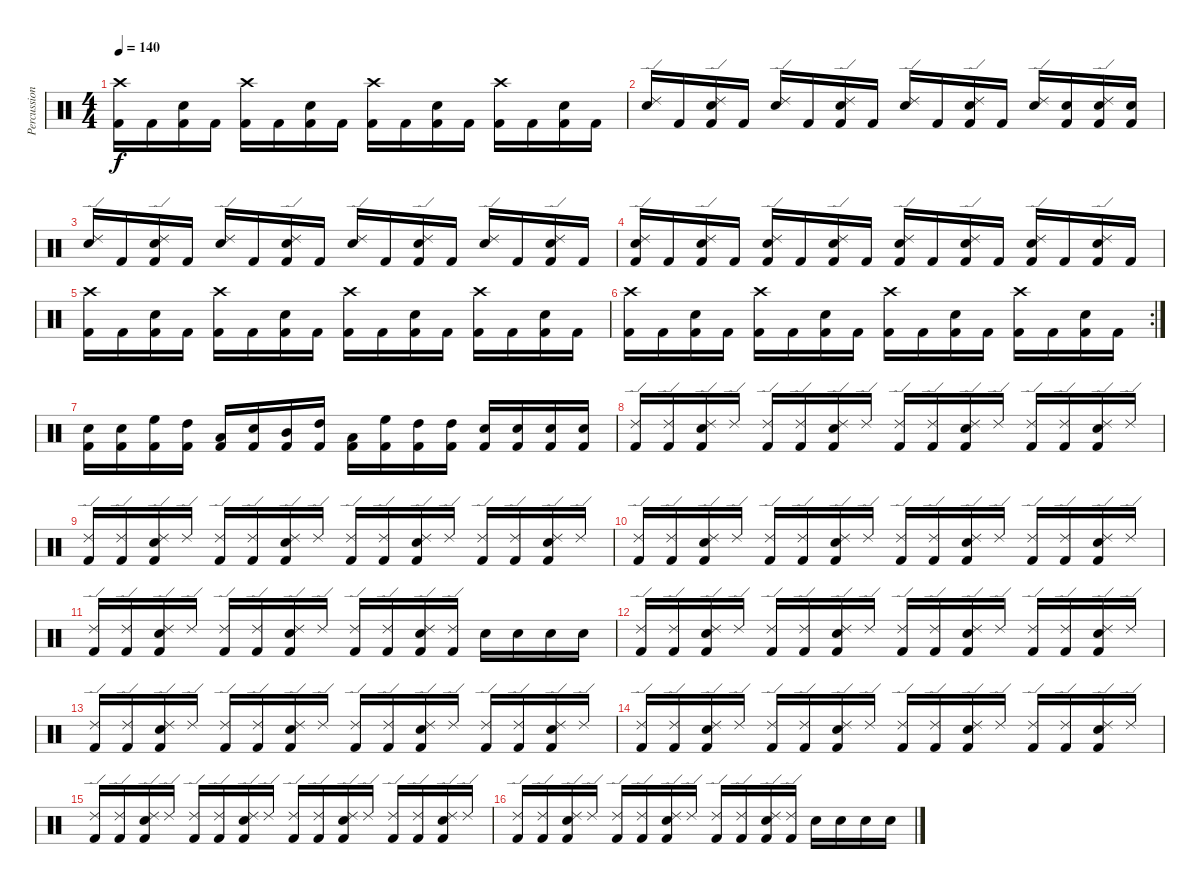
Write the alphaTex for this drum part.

\track ("Percussion" "Percussion") {instrument percussion}
\staff {score}
\articulation defaults
\ts (4 4)
\tempo 140
\clef neutral
\ks c
("Kick (hit) 2" "Crash high (hit)").16{dy f} "Kick (hit) 2".16 ("Kick (hit) 2" "Electric Snare (hit)").16 "Kick (hit) 2".16 ("Kick (hit) 2" "Crash high (hit)").16 "Kick (hit) 2".16 ("Kick (hit) 2" "Electric Snare (hit)").16 "Kick (hit) 2".16 ("Kick (hit) 2" "Crash high (hit)").16 "Kick (hit) 2".16 ("Kick (hit) 2" "Electric Snare (hit)").16 "Kick (hit) 2".16 ("Kick (hit) 2" "Crash high (hit)").16 "Kick (hit) 2".16 ("Kick (hit) 2" "Electric Snare (hit)").16 "Kick (hit) 2".16 |
("Electric Snare (hit)" "Ride (edge) 2").16 "Kick (hit) 2".16 ("Kick (hit) 2" "Electric Snare (hit)" "Ride (edge) 2").16 "Kick (hit) 2".16 ("Electric Snare (hit)" "Ride (edge) 2").16 "Kick (hit) 2".16 ("Kick (hit) 2" "Electric Snare (hit)" "Ride (edge) 2").16 "Kick (hit) 2".16 ("Electric Snare (hit)" "Ride (edge) 2").16 "Kick (hit) 2".16 ("Kick (hit) 2" "Electric Snare (hit)" "Ride (edge) 2").16 "Kick (hit) 2".16 ("Electric Snare (hit)" "Ride (edge) 2").16 ("Kick (hit) 2" "Electric Snare (hit)").16 ("Kick (hit) 2" "Electric Snare (hit)" "Ride (edge) 2").16 ("Kick (hit) 2" "Electric Snare (hit)").16 |
("Electric Snare (hit)" "Ride (edge) 2").16 "Kick (hit) 2".16 ("Kick (hit) 2" "Electric Snare (hit)" "Ride (edge) 2").16 "Kick (hit) 2".16 ("Electric Snare (hit)" "Ride (edge) 2").16 "Kick (hit) 2".16 ("Kick (hit) 2" "Electric Snare (hit)" "Ride (edge) 2").16 "Kick (hit) 2".16 ("Electric Snare (hit)" "Ride (edge) 2").16 "Kick (hit) 2".16 ("Kick (hit) 2" "Electric Snare (hit)" "Ride (edge) 2").16 "Kick (hit) 2".16 ("Electric Snare (hit)" "Ride (edge) 2").16 "Kick (hit) 2".16 ("Kick (hit) 2" "Electric Snare (hit)" "Ride (edge) 2").16 "Kick (hit) 2".16 |
("Kick (hit) 2" "Electric Snare (hit)" "Ride (edge) 2").16 "Kick (hit) 2".16 ("Kick (hit) 2" "Electric Snare (hit)" "Ride (edge) 2").16 "Kick (hit) 2".16 ("Kick (hit) 2" "Electric Snare (hit)" "Ride (edge) 2").16 "Kick (hit) 2".16 ("Kick (hit) 2" "Electric Snare (hit)" "Ride (edge) 2").16 "Kick (hit) 2".16 ("Kick (hit) 2" "Electric Snare (hit)" "Ride (edge) 2").16 "Kick (hit) 2".16 ("Kick (hit) 2" "Electric Snare (hit)" "Ride (edge) 2").16 "Kick (hit) 2".16 ("Kick (hit) 2" "Electric Snare (hit)" "Ride (edge) 2").16 "Kick (hit) 2".16 ("Kick (hit) 2" "Electric Snare (hit)" "Ride (edge) 2").16 "Kick (hit) 2".16 |
("Kick (hit) 2" "Crash high (hit)").16 "Kick (hit) 2".16 ("Kick (hit) 2" "Electric Snare (hit)").16 "Kick (hit) 2".16 ("Kick (hit) 2" "Crash high (hit)").16 "Kick (hit) 2".16 ("Kick (hit) 2" "Electric Snare (hit)").16 "Kick (hit) 2".16 ("Kick (hit) 2" "Crash high (hit)").16 "Kick (hit) 2".16 ("Kick (hit) 2" "Electric Snare (hit)").16 "Kick (hit) 2".16 ("Kick (hit) 2" "Crash high (hit)").16 "Kick (hit) 2".16 ("Kick (hit) 2" "Electric Snare (hit)").16 "Kick (hit) 2".16 |
\rc 2
("Kick (hit) 2" "Crash high (hit)").16 "Kick (hit) 2".16 ("Kick (hit) 2" "Electric Snare (hit)").16 "Kick (hit) 2".16 ("Kick (hit) 2" "Crash high (hit)").16 "Kick (hit) 2".16 ("Kick (hit) 2" "Electric Snare (hit)").16 "Kick (hit) 2".16 ("Kick (hit) 2" "Crash high (hit)").16 "Kick (hit) 2".16 ("Kick (hit) 2" "Electric Snare (hit)").16 "Kick (hit) 2".16 ("Kick (hit) 2" "Crash high (hit)").16 "Kick (hit) 2".16 ("Kick (hit) 2" "Electric Snare (hit)").16 "Kick (hit) 2".16 |
("Kick (hit) 2" "Electric Snare (hit)").16 ("Kick (hit) 2" "Electric Snare (hit)").16 ("Kick (hit) 2" "High Floor Tom (hit)").16 ("Kick (hit) 2" "High Tom (hit)").16 ("Kick (hit) 2" "Low Tom (hit)").16 ("Kick (hit) 2" "Electric Snare (hit)").16 ("Kick (hit) 2" "Mid Tom (hit)").16 ("Kick (hit) 2" "High Tom (hit)").16 ("Kick (hit) 2" "Low Tom (hit)").16 ("Kick (hit) 2" "High Floor Tom (hit)").16 ("Kick (hit) 2" "High Tom (hit)").16 ("Kick (hit) 2" "High Tom (hit)").16 ("Kick (hit) 2" "Electric Snare (hit)").16 ("Kick (hit) 2" "Electric Snare (hit)").16 ("Kick (hit) 2" "Electric Snare (hit)").16 ("Kick (hit) 2" "Electric Snare (hit)").16 |
("Kick (hit) 2" "Ride (edge) 2").16 ("Kick (hit) 2" "Ride (edge) 2").16 ("Kick (hit) 2" "Electric Snare (hit)" "Ride (edge) 2").16 "Ride (edge) 2".16 ("Kick (hit) 2" "Ride (edge) 2").16 ("Kick (hit) 2" "Ride (edge) 2").16 ("Kick (hit) 2" "Electric Snare (hit)" "Ride (edge) 2").16 "Ride (edge) 2".16 ("Kick (hit) 2" "Ride (edge) 2").16 ("Kick (hit) 2" "Ride (edge) 2").16 ("Kick (hit) 2" "Electric Snare (hit)" "Ride (edge) 2").16 "Ride (edge) 2".16 ("Kick (hit) 2" "Ride (edge) 2").16 ("Kick (hit) 2" "Ride (edge) 2").16 ("Kick (hit) 2" "Electric Snare (hit)" "Ride (edge) 2").16 "Ride (edge) 2".16 |
("Kick (hit) 2" "Ride (edge) 2").16 ("Kick (hit) 2" "Ride (edge) 2").16 ("Kick (hit) 2" "Electric Snare (hit)" "Ride (edge) 2").16 "Ride (edge) 2".16 ("Kick (hit) 2" "Ride (edge) 2").16 ("Kick (hit) 2" "Ride (edge) 2").16 ("Kick (hit) 2" "Electric Snare (hit)" "Ride (edge) 2").16 "Ride (edge) 2".16 ("Kick (hit) 2" "Ride (edge) 2").16 ("Kick (hit) 2" "Ride (edge) 2").16 ("Kick (hit) 2" "Electric Snare (hit)" "Ride (edge) 2").16 "Ride (edge) 2".16 ("Kick (hit) 2" "Ride (edge) 2").16 ("Kick (hit) 2" "Ride (edge) 2").16 ("Kick (hit) 2" "Electric Snare (hit)" "Ride (edge) 2").16 "Ride (edge) 2".16 |
("Kick (hit) 2" "Ride (edge) 2").16 ("Kick (hit) 2" "Ride (edge) 2").16 ("Kick (hit) 2" "Electric Snare (hit)" "Ride (edge) 2").16 "Ride (edge) 2".16 ("Kick (hit) 2" "Ride (edge) 2").16 ("Kick (hit) 2" "Ride (edge) 2").16 ("Kick (hit) 2" "Electric Snare (hit)" "Ride (edge) 2").16 "Ride (edge) 2".16 ("Kick (hit) 2" "Ride (edge) 2").16 ("Kick (hit) 2" "Ride (edge) 2").16 ("Kick (hit) 2" "Electric Snare (hit)" "Ride (edge) 2").16 "Ride (edge) 2".16 ("Kick (hit) 2" "Ride (edge) 2").16 ("Kick (hit) 2" "Ride (edge) 2").16 ("Kick (hit) 2" "Electric Snare (hit)" "Ride (edge) 2").16 "Ride (edge) 2".16 |
("Kick (hit) 2" "Ride (edge) 2").16 ("Kick (hit) 2" "Ride (edge) 2").16 ("Kick (hit) 2" "Electric Snare (hit)" "Ride (edge) 2").16 "Ride (edge) 2".16 ("Kick (hit) 2" "Ride (edge) 2").16 ("Kick (hit) 2" "Ride (edge) 2").16 ("Kick (hit) 2" "Electric Snare (hit)" "Ride (edge) 2").16 "Ride (edge) 2".16 ("Kick (hit) 2" "Ride (edge) 2").16 ("Kick (hit) 2" "Ride (edge) 2").16 ("Kick (hit) 2" "Electric Snare (hit)" "Ride (edge) 2").16 ("Kick (hit) 2" "Ride (edge) 2").16 "Electric Snare (hit)".16 "Electric Snare (hit)".16 "Electric Snare (hit)".16 "Electric Snare (hit)".16 |
("Kick (hit) 2" "Ride (edge) 2").16 ("Kick (hit) 2" "Ride (edge) 2").16 ("Kick (hit) 2" "Electric Snare (hit)" "Ride (edge) 2").16 "Ride (edge) 2".16 ("Kick (hit) 2" "Ride (edge) 2").16 ("Kick (hit) 2" "Ride (edge) 2").16 ("Kick (hit) 2" "Electric Snare (hit)" "Ride (edge) 2").16 "Ride (edge) 2".16 ("Kick (hit) 2" "Ride (edge) 2").16 ("Kick (hit) 2" "Ride (edge) 2").16 ("Kick (hit) 2" "Electric Snare (hit)" "Ride (edge) 2").16 "Ride (edge) 2".16 ("Kick (hit) 2" "Ride (edge) 2").16 ("Kick (hit) 2" "Ride (edge) 2").16 ("Kick (hit) 2" "Electric Snare (hit)" "Ride (edge) 2").16 "Ride (edge) 2".16 |
("Kick (hit) 2" "Ride (edge) 2").16 ("Kick (hit) 2" "Ride (edge) 2").16 ("Kick (hit) 2" "Electric Snare (hit)" "Ride (edge) 2").16 "Ride (edge) 2".16 ("Kick (hit) 2" "Ride (edge) 2").16 ("Kick (hit) 2" "Ride (edge) 2").16 ("Kick (hit) 2" "Electric Snare (hit)" "Ride (edge) 2").16 "Ride (edge) 2".16 ("Kick (hit) 2" "Ride (edge) 2").16 ("Kick (hit) 2" "Ride (edge) 2").16 ("Kick (hit) 2" "Electric Snare (hit)" "Ride (edge) 2").16 "Ride (edge) 2".16 ("Kick (hit) 2" "Ride (edge) 2").16 ("Kick (hit) 2" "Ride (edge) 2").16 ("Kick (hit) 2" "Electric Snare (hit)" "Ride (edge) 2").16 "Ride (edge) 2".16 |
("Kick (hit) 2" "Ride (edge) 2").16 ("Kick (hit) 2" "Ride (edge) 2").16 ("Kick (hit) 2" "Electric Snare (hit)" "Ride (edge) 2").16 "Ride (edge) 2".16 ("Kick (hit) 2" "Ride (edge) 2").16 ("Kick (hit) 2" "Ride (edge) 2").16 ("Kick (hit) 2" "Electric Snare (hit)" "Ride (edge) 2").16 "Ride (edge) 2".16 ("Kick (hit) 2" "Ride (edge) 2").16 ("Kick (hit) 2" "Ride (edge) 2").16 ("Kick (hit) 2" "Electric Snare (hit)" "Ride (edge) 2").16 "Ride (edge) 2".16 ("Kick (hit) 2" "Ride (edge) 2").16 ("Kick (hit) 2" "Ride (edge) 2").16 ("Kick (hit) 2" "Electric Snare (hit)" "Ride (edge) 2").16 "Ride (edge) 2".16 |
("Kick (hit) 2" "Ride (edge) 2").16 ("Kick (hit) 2" "Ride (edge) 2").16 ("Kick (hit) 2" "Electric Snare (hit)" "Ride (edge) 2").16 "Ride (edge) 2".16 ("Kick (hit) 2" "Ride (edge) 2").16 ("Kick (hit) 2" "Ride (edge) 2").16 ("Kick (hit) 2" "Electric Snare (hit)" "Ride (edge) 2").16 "Ride (edge) 2".16 ("Kick (hit) 2" "Ride (edge) 2").16 ("Kick (hit) 2" "Ride (edge) 2").16 ("Kick (hit) 2" "Electric Snare (hit)" "Ride (edge) 2").16 "Ride (edge) 2".16 ("Kick (hit) 2" "Ride (edge) 2").16 ("Kick (hit) 2" "Ride (edge) 2").16 ("Kick (hit) 2" "Electric Snare (hit)" "Ride (edge) 2").16 "Ride (edge) 2".16 |
("Kick (hit) 2" "Ride (edge) 2").16 ("Kick (hit) 2" "Ride (edge) 2").16 ("Kick (hit) 2" "Electric Snare (hit)" "Ride (edge) 2").16 "Ride (edge) 2".16 ("Kick (hit) 2" "Ride (edge) 2").16 ("Kick (hit) 2" "Ride (edge) 2").16 ("Kick (hit) 2" "Electric Snare (hit)" "Ride (edge) 2").16 "Ride (edge) 2".16 ("Kick (hit) 2" "Ride (edge) 2").16 ("Kick (hit) 2" "Ride (edge) 2").16 ("Kick (hit) 2" "Electric Snare (hit)" "Ride (edge) 2").16 ("Kick (hit) 2" "Ride (edge) 2").16 "Electric Snare (hit)".16 "Electric Snare (hit)".16 "Electric Snare (hit)".16 "Electric Snare (hit)".16
